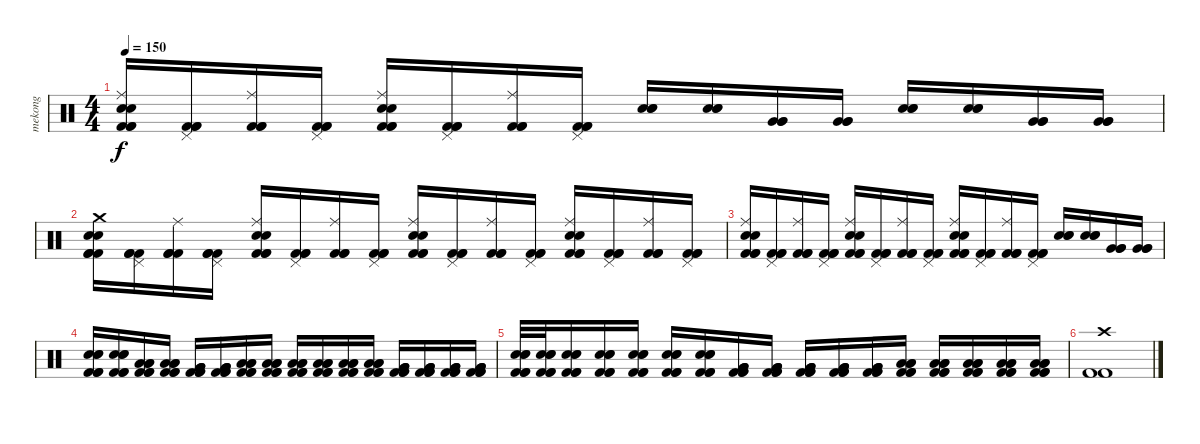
\track ("mekong" "mekong") {instrument percussion}
\staff {score}
\articulation defaults
\ts (4 4)
\tempo 150
\clef neutral
\ks c
("Electric Snare (hit)" "Electric Snare (hit)" "Ride (middle)" "Kick (hit) 2" "Kick (hit) 2" "Kick (hit) 2").16{dy f} ("Pedal Hi-Hat (hit)" "Kick (hit) 2" "Kick (hit) 2" "Kick (hit) 2").16 ("Ride (middle)" "Kick (hit) 2" "Kick (hit) 2" "Kick (hit) 2").16 ("Pedal Hi-Hat (hit)" "Kick (hit) 2" "Kick (hit) 2" "Kick (hit) 2").16 ("Electric Snare (hit)" "Electric Snare (hit)" "Ride (middle)" "Kick (hit) 2" "Kick (hit) 2" "Kick (hit) 2").16 ("Pedal Hi-Hat (hit)" "Kick (hit) 2" "Kick (hit) 2" "Kick (hit) 2").16 ("Ride (middle)" "Kick (hit) 2" "Kick (hit) 2" "Kick (hit) 2").16 ("Pedal Hi-Hat (hit)" "Kick (hit) 2" "Kick (hit) 2" "Kick (hit) 2").16 ("Electric Snare (hit)" "Electric Snare (hit)" "Electric Snare (hit)").16 ("Electric Snare (hit)" "Electric Snare (hit)" "Electric Snare (hit)").16 ("Very Low Tom (hit)" "Very Low Tom (hit)" "Very Low Tom (hit)").16 ("Very Low Tom (hit)" "Very Low Tom (hit)" "Very Low Tom (hit)").16 ("Electric Snare (hit)" "Electric Snare (hit)" "Electric Snare (hit)").16 ("Electric Snare (hit)" "Electric Snare (hit)" "Electric Snare (hit)").16 ("Very Low Tom (hit)" "Very Low Tom (hit)" "Very Low Tom (hit)").16 ("Very Low Tom (hit)" "Very Low Tom (hit)" "Very Low Tom (hit)").16 |
("Electric Snare (hit)" "Electric Snare (hit)" "Crash medium (hit)" "Kick (hit) 2" "Kick (hit) 2" "Kick (hit) 2").16 ("Pedal Hi-Hat (hit)" "Kick (hit) 2" "Kick (hit) 2" "Kick (hit) 2").16 ("Ride (middle)" "Kick (hit) 2" "Kick (hit) 2" "Kick (hit) 2").16 ("Pedal Hi-Hat (hit)" "Kick (hit) 2" "Kick (hit) 2" "Kick (hit) 2").16 ("Electric Snare (hit)" "Electric Snare (hit)" "Ride (middle)" "Kick (hit) 2" "Kick (hit) 2" "Kick (hit) 2").16 ("Pedal Hi-Hat (hit)" "Kick (hit) 2" "Kick (hit) 2" "Kick (hit) 2").16 ("Ride (middle)" "Kick (hit) 2" "Kick (hit) 2" "Kick (hit) 2").16 ("Pedal Hi-Hat (hit)" "Kick (hit) 2" "Kick (hit) 2" "Kick (hit) 2").16 ("Electric Snare (hit)" "Electric Snare (hit)" "Ride (middle)" "Kick (hit) 2" "Kick (hit) 2" "Kick (hit) 2").16 ("Pedal Hi-Hat (hit)" "Kick (hit) 2" "Kick (hit) 2" "Kick (hit) 2").16 ("Ride (middle)" "Kick (hit) 2" "Kick (hit) 2" "Kick (hit) 2").16 ("Pedal Hi-Hat (hit)" "Kick (hit) 2" "Kick (hit) 2" "Kick (hit) 2").16 ("Electric Snare (hit)" "Electric Snare (hit)" "Ride (middle)" "Kick (hit) 2" "Kick (hit) 2" "Kick (hit) 2").16 ("Pedal Hi-Hat (hit)" "Kick (hit) 2" "Kick (hit) 2" "Kick (hit) 2").16 ("Ride (middle)" "Kick (hit) 2" "Kick (hit) 2" "Kick (hit) 2").16 ("Pedal Hi-Hat (hit)" "Kick (hit) 2" "Kick (hit) 2" "Kick (hit) 2").16 |
("Electric Snare (hit)" "Electric Snare (hit)" "Ride (middle)" "Kick (hit) 2" "Kick (hit) 2" "Kick (hit) 2").16 ("Pedal Hi-Hat (hit)" "Kick (hit) 2" "Kick (hit) 2" "Kick (hit) 2").16 ("Ride (middle)" "Kick (hit) 2" "Kick (hit) 2" "Kick (hit) 2").16 ("Pedal Hi-Hat (hit)" "Kick (hit) 2" "Kick (hit) 2" "Kick (hit) 2").16 ("Electric Snare (hit)" "Electric Snare (hit)" "Ride (middle)" "Kick (hit) 2" "Kick (hit) 2" "Kick (hit) 2").16 ("Pedal Hi-Hat (hit)" "Kick (hit) 2" "Kick (hit) 2" "Kick (hit) 2").16 ("Ride (middle)" "Kick (hit) 2" "Kick (hit) 2" "Kick (hit) 2").16 ("Pedal Hi-Hat (hit)" "Kick (hit) 2" "Kick (hit) 2" "Kick (hit) 2").16 ("Electric Snare (hit)" "Electric Snare (hit)" "Ride (middle)" "Kick (hit) 2" "Kick (hit) 2" "Kick (hit) 2").16 ("Pedal Hi-Hat (hit)" "Kick (hit) 2" "Kick (hit) 2" "Kick (hit) 2").16 ("Ride (middle)" "Kick (hit) 2" "Kick (hit) 2" "Kick (hit) 2").16 ("Pedal Hi-Hat (hit)" "Kick (hit) 2" "Kick (hit) 2" "Kick (hit) 2").16 ("Electric Snare (hit)" "Electric Snare (hit)" "Electric Snare (hit)").16 ("Electric Snare (hit)" "Electric Snare (hit)" "Electric Snare (hit)").16 ("Very Low Tom (hit)" "Very Low Tom (hit)" "Very Low Tom (hit)").16 ("Very Low Tom (hit)" "Very Low Tom (hit)" "Very Low Tom (hit)").16 |
("Electric Snare (hit)" "Electric Snare (hit)" "Electric Snare (hit)" "Kick (hit) 2" "Kick (hit) 2" "Kick (hit) 2").16 ("Electric Snare (hit)" "Electric Snare (hit)" "Electric Snare (hit)" "Kick (hit) 2" "Kick (hit) 2" "Kick (hit) 2").16 ("Low Tom (hit)" "Low Tom (hit)" "Low Tom (hit)" "Kick (hit) 2" "Kick (hit) 2" "Kick (hit) 2").16 ("Low Tom (hit)" "Low Tom (hit)" "Low Tom (hit)" "Kick (hit) 2" "Kick (hit) 2" "Kick (hit) 2").16 ("Very Low Tom (hit)" "Very Low Tom (hit)" "Very Low Tom (hit)" "Kick (hit) 2" "Kick (hit) 2" "Kick (hit) 2").16 ("Very Low Tom (hit)" "Very Low Tom (hit)" "Very Low Tom (hit)" "Kick (hit) 2" "Kick (hit) 2" "Kick (hit) 2").16 ("Low Tom (hit)" "Low Tom (hit)" "Low Tom (hit)" "Kick (hit) 2" "Kick (hit) 2" "Kick (hit) 2").16 ("Low Tom (hit)" "Low Tom (hit)" "Low Tom (hit)" "Kick (hit) 2" "Kick (hit) 2" "Kick (hit) 2").16 ("Low Tom (hit)" "Low Tom (hit)" "Low Tom (hit)" "Kick (hit) 2" "Kick (hit) 2" "Kick (hit) 2").16 ("Low Tom (hit)" "Low Tom (hit)" "Low Tom (hit)" "Kick (hit) 2" "Kick (hit) 2" "Kick (hit) 2").16 ("Low Tom (hit)" "Low Tom (hit)" "Low Tom (hit)" "Kick (hit) 2" "Kick (hit) 2" "Kick (hit) 2").16 ("Low Tom (hit)" "Low Tom (hit)" "Low Tom (hit)" "Kick (hit) 2" "Kick (hit) 2" "Kick (hit) 2").16 ("Very Low Tom (hit)" "Very Low Tom (hit)" "Very Low Tom (hit)" "Kick (hit) 2" "Kick (hit) 2" "Kick (hit) 2").16 ("Very Low Tom (hit)" "Very Low Tom (hit)" "Very Low Tom (hit)" "Kick (hit) 2" "Kick (hit) 2" "Kick (hit) 2").16 ("Very Low Tom (hit)" "Very Low Tom (hit)" "Very Low Tom (hit)" "Kick (hit) 2" "Kick (hit) 2" "Kick (hit) 2").16 ("Very Low Tom (hit)" "Very Low Tom (hit)" "Very Low Tom (hit)" "Kick (hit) 2" "Kick (hit) 2" "Kick (hit) 2").16 |
("Electric Snare (hit)" "Electric Snare (hit)" "Electric Snare (hit)" "Kick (hit) 2" "Kick (hit) 2" "Kick (hit) 2").32 ("Electric Snare (hit)" "Electric Snare (hit)" "Electric Snare (hit)" "Kick (hit) 2" "Kick (hit) 2" "Kick (hit) 2").32 ("Electric Snare (hit)" "Electric Snare (hit)" "Electric Snare (hit)" "Kick (hit) 2" "Kick (hit) 2" "Kick (hit) 2").16 ("Electric Snare (hit)" "Electric Snare (hit)" "Electric Snare (hit)" "Kick (hit) 2" "Kick (hit) 2" "Kick (hit) 2").16 ("Electric Snare (hit)" "Electric Snare (hit)" "Electric Snare (hit)" "Kick (hit) 2" "Kick (hit) 2" "Kick (hit) 2").16 ("Electric Snare (hit)" "Electric Snare (hit)" "Electric Snare (hit)" "Kick (hit) 2" "Kick (hit) 2" "Kick (hit) 2").16 ("Electric Snare (hit)" "Electric Snare (hit)" "Electric Snare (hit)" "Kick (hit) 2" "Kick (hit) 2" "Kick (hit) 2").16 ("Very Low Tom (hit)" "Very Low Tom (hit)" "Very Low Tom (hit)" "Kick (hit) 2" "Kick (hit) 2" "Kick (hit) 2").16 ("Very Low Tom (hit)" "Very Low Tom (hit)" "Very Low Tom (hit)" "Kick (hit) 2" "Kick (hit) 2" "Kick (hit) 2").16 ("Very Low Tom (hit)" "Very Low Tom (hit)" "Very Low Tom (hit)" "Kick (hit) 2" "Kick (hit) 2" "Kick (hit) 2").16 ("Very Low Tom (hit)" "Very Low Tom (hit)" "Very Low Tom (hit)" "Kick (hit) 2" "Kick (hit) 2" "Kick (hit) 2").16 ("Very Low Tom (hit)" "Very Low Tom (hit)" "Very Low Tom (hit)" "Kick (hit) 2" "Kick (hit) 2" "Kick (hit) 2").16 ("Low Floor Tom (hit)" "Low Floor Tom (hit)" "Low Floor Tom (hit)" "Kick (hit) 2" "Kick (hit) 2" "Kick (hit) 2").16 ("Low Floor Tom (hit)" "Low Floor Tom (hit)" "Low Floor Tom (hit)" "Kick (hit) 2" "Kick (hit) 2" "Kick (hit) 2").16 ("Low Floor Tom (hit)" "Low Floor Tom (hit)" "Low Floor Tom (hit)" "Kick (hit) 2" "Kick (hit) 2" "Kick (hit) 2").16 ("Low Floor Tom (hit)" "Low Floor Tom (hit)" "Low Floor Tom (hit)" "Kick (hit) 2" "Kick (hit) 2" "Kick (hit) 2").16 ("Low Floor Tom (hit)" "Low Floor Tom (hit)" "Low Floor Tom (hit)" "Kick (hit) 2" "Kick (hit) 2" "Kick (hit) 2").16 |
("Crash high (hit)" "Kick (hit) 2" "Kick (hit) 2").1
